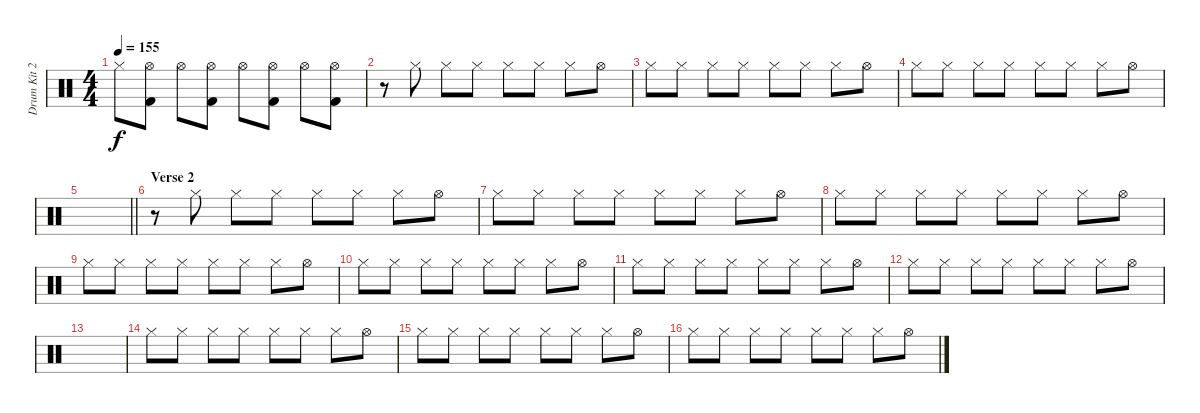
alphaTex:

\track ("Drum Kit 2" "Drum Kit 2") {instrument percussion}
\staff {score}
\articulation defaults
\ts (4 4)
\tempo 155
\clef neutral
\ks c "Hi-Hat (closed)".8{dy f}
("Kick (hit) 2" "Hi-Hat (open)").8 "Hi-Hat (open)".8 ("Kick (hit) 2" "Hi-Hat (open)").8 "Hi-Hat (open)".8 ("Kick (hit) 2" "Hi-Hat (open)").8 "Hi-Hat (open)".8 ("Kick (hit) 2" "Hi-Hat (open)").8 |
r.8 "Hi-Hat (closed)".8 "Hi-Hat (closed)".8 "Hi-Hat (closed)".8 "Hi-Hat (closed)".8 "Hi-Hat (closed)".8 "Hi-Hat (closed)".8 "Hi-Hat (open)".8 |
"Hi-Hat (closed)".8 "Hi-Hat (closed)".8 "Hi-Hat (closed)".8 "Hi-Hat (closed)".8 "Hi-Hat (closed)".8 "Hi-Hat (closed)".8 "Hi-Hat (closed)".8 "Hi-Hat (open)".8 |
"Hi-Hat (closed)".8 "Hi-Hat (closed)".8 "Hi-Hat (closed)".8 "Hi-Hat (closed)".8 "Hi-Hat (closed)".8 "Hi-Hat (closed)".8 "Hi-Hat (closed)".8 "Hi-Hat (open)".8 |
\barLineRight lightlight
|
\section ("" "Verse 2")
r.8 "Hi-Hat (closed)".8 "Hi-Hat (closed)".8 "Hi-Hat (closed)".8 "Hi-Hat (closed)".8 "Hi-Hat (closed)".8 "Hi-Hat (closed)".8 "Hi-Hat (open)".8 |
"Hi-Hat (closed)".8 "Hi-Hat (closed)".8 "Hi-Hat (closed)".8 "Hi-Hat (closed)".8 "Hi-Hat (closed)".8 "Hi-Hat (closed)".8 "Hi-Hat (closed)".8 "Hi-Hat (open)".8 |
"Hi-Hat (closed)".8 "Hi-Hat (closed)".8 "Hi-Hat (closed)".8 "Hi-Hat (closed)".8 "Hi-Hat (closed)".8 "Hi-Hat (closed)".8 "Hi-Hat (closed)".8 "Hi-Hat (open)".8 |
"Hi-Hat (closed)".8 "Hi-Hat (closed)".8 "Hi-Hat (closed)".8 "Hi-Hat (closed)".8 "Hi-Hat (closed)".8 "Hi-Hat (closed)".8 "Hi-Hat (closed)".8 "Hi-Hat (open)".8 |
"Hi-Hat (closed)".8 "Hi-Hat (closed)".8 "Hi-Hat (closed)".8 "Hi-Hat (closed)".8 "Hi-Hat (closed)".8 "Hi-Hat (closed)".8 "Hi-Hat (closed)".8 "Hi-Hat (open)".8 |
"Hi-Hat (closed)".8 "Hi-Hat (closed)".8 "Hi-Hat (closed)".8 "Hi-Hat (closed)".8 "Hi-Hat (closed)".8 "Hi-Hat (closed)".8 "Hi-Hat (closed)".8 "Hi-Hat (open)".8 |
"Hi-Hat (closed)".8 "Hi-Hat (closed)".8 "Hi-Hat (closed)".8 "Hi-Hat (closed)".8 "Hi-Hat (closed)".8 "Hi-Hat (closed)".8 "Hi-Hat (closed)".8 "Hi-Hat (open)".8 |
|
"Hi-Hat (closed)".8 "Hi-Hat (closed)".8 "Hi-Hat (closed)".8 "Hi-Hat (closed)".8 "Hi-Hat (closed)".8 "Hi-Hat (closed)".8 "Hi-Hat (closed)".8 "Hi-Hat (open)".8 |
"Hi-Hat (closed)".8 "Hi-Hat (closed)".8 "Hi-Hat (closed)".8 "Hi-Hat (closed)".8 "Hi-Hat (closed)".8 "Hi-Hat (closed)".8 "Hi-Hat (closed)".8 "Hi-Hat (open)".8 |
"Hi-Hat (closed)".8 "Hi-Hat (closed)".8 "Hi-Hat (closed)".8 "Hi-Hat (closed)".8 "Hi-Hat (closed)".8 "Hi-Hat (closed)".8 "Hi-Hat (closed)".8 "Hi-Hat (open)".8
